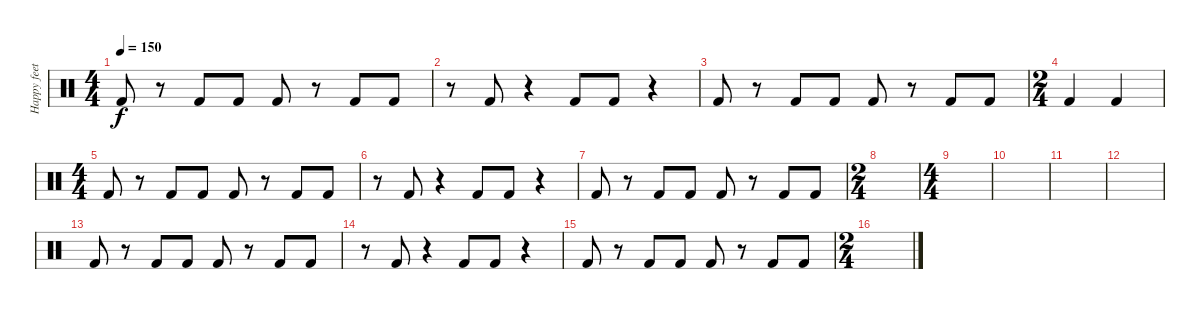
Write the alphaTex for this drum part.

\track ("Happy feet" "Happy feet") {instrument percussion}
\staff {score}
\articulation defaults
\ts (4 4)
\tempo 150
\clef neutral
\ks c "Kick (hit) 2".8{dy f}
r.8 "Kick (hit) 2".8 "Kick (hit) 2".8 "Kick (hit) 2".8 r.8 "Kick (hit) 2".8 "Kick (hit) 2".8 |
r.8 "Kick (hit) 2".8 r.4 "Kick (hit) 2".8 "Kick (hit) 2".8 r.4 |
"Kick (hit) 2".8 r.8 "Kick (hit) 2".8 "Kick (hit) 2".8 "Kick (hit) 2".8 r.8 "Kick (hit) 2".8 "Kick (hit) 2".8 |
\ts (2 4)
"Kick (hit) 2".4 "Kick (hit) 2".4 |
\ts (4 4)
"Kick (hit) 2".8 r.8 "Kick (hit) 2".8 "Kick (hit) 2".8 "Kick (hit) 2".8 r.8 "Kick (hit) 2".8 "Kick (hit) 2".8 |
r.8 "Kick (hit) 2".8 r.4 "Kick (hit) 2".8 "Kick (hit) 2".8 r.4 |
"Kick (hit) 2".8 r.8 "Kick (hit) 2".8 "Kick (hit) 2".8 "Kick (hit) 2".8 r.8 "Kick (hit) 2".8 "Kick (hit) 2".8 |
\ts (2 4)
|
\ts (4 4)
|
|
|
|
"Kick (hit) 2".8 r.8 "Kick (hit) 2".8 "Kick (hit) 2".8 "Kick (hit) 2".8 r.8 "Kick (hit) 2".8 "Kick (hit) 2".8 |
r.8 "Kick (hit) 2".8 r.4 "Kick (hit) 2".8 "Kick (hit) 2".8 r.4 |
"Kick (hit) 2".8 r.8 "Kick (hit) 2".8 "Kick (hit) 2".8 "Kick (hit) 2".8 r.8 "Kick (hit) 2".8 "Kick (hit) 2".8 |
\ts (2 4)
